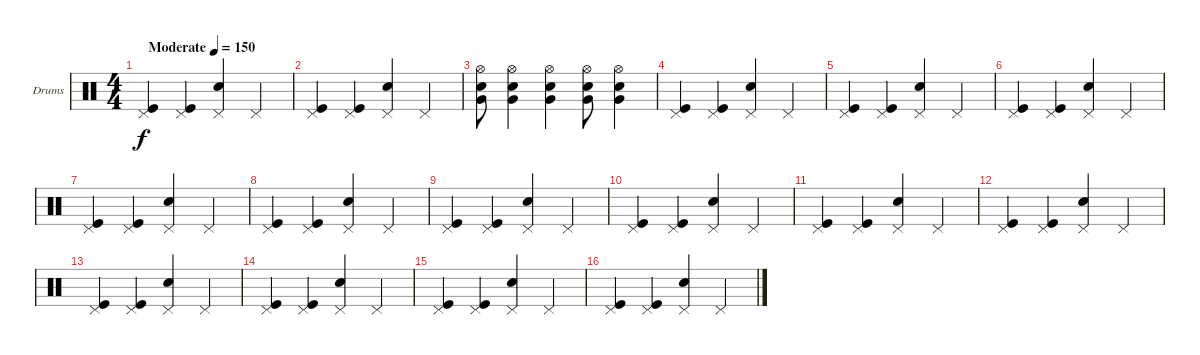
\bracketExtendMode groupsimilarinstruments
\firstSystemTrackNameOrientation horizontal
\otherSystemsTrackNameOrientation horizontal
\track ("Drumkit" "Drums") {instrument percussion}
\staff {score}
\articulation defaults
\ts (4 4)
\beaming (8 2 2 2 2)
\tempo (150 "Moderate")
\clef neutral
\ks c
("Pedal Hi-Hat (hit)" "Kick (hit)").4{dy f} ("Pedal Hi-Hat (hit)" "Kick (hit)").4 ("Pedal Hi-Hat (hit)" "Snare (hit) 2").4 "Pedal Hi-Hat (hit)".4 |
("Pedal Hi-Hat (hit)" "Kick (hit)").4 ("Pedal Hi-Hat (hit)" "Kick (hit)").4 ("Pedal Hi-Hat (hit)" "Snare (hit) 2").4 "Pedal Hi-Hat (hit)".4 |
("Snare (hit) 2" "Very Low Tom (hit)" "Hi-Hat (open)").8 ("Snare (hit) 2" "Very Low Tom (hit)" "Hi-Hat (open)").4 ("Snare (hit) 2" "Very Low Tom (hit)" "Hi-Hat (open)").4 ("Snare (hit) 2" "Very Low Tom (hit)" "Hi-Hat (open)").8 ("Snare (hit) 2" "Very Low Tom (hit)" "Hi-Hat (open)").4 |
("Pedal Hi-Hat (hit)" "Kick (hit)").4 ("Pedal Hi-Hat (hit)" "Kick (hit)").4 ("Pedal Hi-Hat (hit)" "Snare (hit) 2").4 "Pedal Hi-Hat (hit)".4 |
("Pedal Hi-Hat (hit)" "Kick (hit)").4 ("Pedal Hi-Hat (hit)" "Kick (hit)").4 ("Pedal Hi-Hat (hit)" "Snare (hit) 2").4 "Pedal Hi-Hat (hit)".4 |
("Pedal Hi-Hat (hit)" "Kick (hit)").4 ("Pedal Hi-Hat (hit)" "Kick (hit)").4 ("Pedal Hi-Hat (hit)" "Snare (hit) 2").4 "Pedal Hi-Hat (hit)".4 |
("Pedal Hi-Hat (hit)" "Kick (hit)").4 ("Pedal Hi-Hat (hit)" "Kick (hit)").4 ("Pedal Hi-Hat (hit)" "Snare (hit) 2").4 "Pedal Hi-Hat (hit)".4 |
("Pedal Hi-Hat (hit)" "Kick (hit)").4 ("Pedal Hi-Hat (hit)" "Kick (hit)").4 ("Pedal Hi-Hat (hit)" "Snare (hit) 2").4 "Pedal Hi-Hat (hit)".4 |
("Pedal Hi-Hat (hit)" "Kick (hit)").4 ("Pedal Hi-Hat (hit)" "Kick (hit)").4 ("Pedal Hi-Hat (hit)" "Snare (hit) 2").4 "Pedal Hi-Hat (hit)".4 |
("Pedal Hi-Hat (hit)" "Kick (hit)").4 ("Pedal Hi-Hat (hit)" "Kick (hit)").4 ("Pedal Hi-Hat (hit)" "Snare (hit) 2").4 "Pedal Hi-Hat (hit)".4 |
("Pedal Hi-Hat (hit)" "Kick (hit)").4 ("Pedal Hi-Hat (hit)" "Kick (hit)").4 ("Pedal Hi-Hat (hit)" "Snare (hit) 2").4 "Pedal Hi-Hat (hit)".4 |
("Pedal Hi-Hat (hit)" "Kick (hit)").4 ("Pedal Hi-Hat (hit)" "Kick (hit)").4 ("Pedal Hi-Hat (hit)" "Snare (hit) 2").4 "Pedal Hi-Hat (hit)".4 |
("Pedal Hi-Hat (hit)" "Kick (hit)").4 ("Pedal Hi-Hat (hit)" "Kick (hit)").4 ("Pedal Hi-Hat (hit)" "Snare (hit) 2").4 "Pedal Hi-Hat (hit)".4 |
("Pedal Hi-Hat (hit)" "Kick (hit)").4 ("Pedal Hi-Hat (hit)" "Kick (hit)").4 ("Pedal Hi-Hat (hit)" "Snare (hit) 2").4 "Pedal Hi-Hat (hit)".4 |
("Pedal Hi-Hat (hit)" "Kick (hit)").4 ("Pedal Hi-Hat (hit)" "Kick (hit)").4 ("Pedal Hi-Hat (hit)" "Snare (hit) 2").4 "Pedal Hi-Hat (hit)".4 |
("Pedal Hi-Hat (hit)" "Kick (hit)").4 ("Pedal Hi-Hat (hit)" "Kick (hit)").4 ("Pedal Hi-Hat (hit)" "Snare (hit) 2").4 "Pedal Hi-Hat (hit)".4
